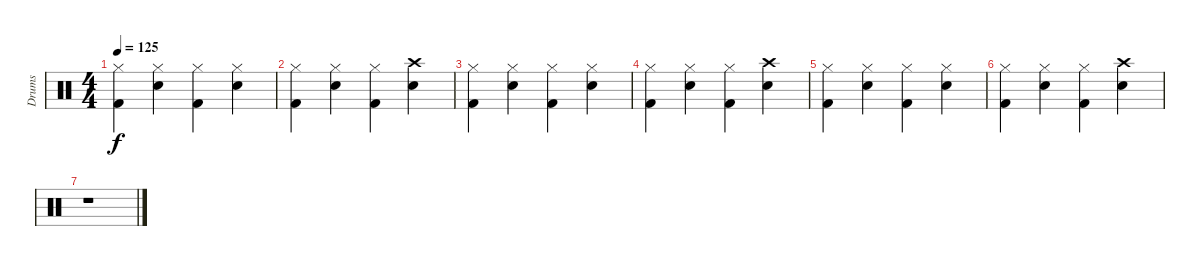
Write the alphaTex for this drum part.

\track ("Drums" "Drums") {instrument percussion}
\staff {score}
\articulation defaults
\ts (4 4)
\tempo 125
\clef neutral
\ks c
("Hi-Hat (closed)" "Kick (hit) 2").4{dy f} ("Hi-Hat (closed)" "Electric Snare (hit)").4 ("Hi-Hat (closed)" "Kick (hit) 2").4 ("Hi-Hat (closed)" "Electric Snare (hit)").4 |
("Hi-Hat (closed)" "Kick (hit) 2").4 ("Hi-Hat (closed)" "Electric Snare (hit)").4 ("Hi-Hat (closed)" "Kick (hit) 2").4 ("Crash high (hit)" "Electric Snare (hit)").4 |
("Hi-Hat (closed)" "Kick (hit) 2").4 ("Hi-Hat (closed)" "Electric Snare (hit)").4 ("Hi-Hat (closed)" "Kick (hit) 2").4 ("Hi-Hat (closed)" "Electric Snare (hit)").4 |
("Hi-Hat (closed)" "Kick (hit) 2").4 ("Hi-Hat (closed)" "Electric Snare (hit)").4 ("Hi-Hat (closed)" "Kick (hit) 2").4 ("Crash high (hit)" "Electric Snare (hit)").4 |
("Hi-Hat (closed)" "Kick (hit) 2").4 ("Hi-Hat (closed)" "Electric Snare (hit)").4 ("Hi-Hat (closed)" "Kick (hit) 2").4 ("Hi-Hat (closed)" "Electric Snare (hit)").4 |
("Hi-Hat (closed)" "Kick (hit) 2").4 ("Hi-Hat (closed)" "Electric Snare (hit)").4 ("Hi-Hat (closed)" "Kick (hit) 2").4 ("Crash high (hit)" "Electric Snare (hit)").4 |
r.1
